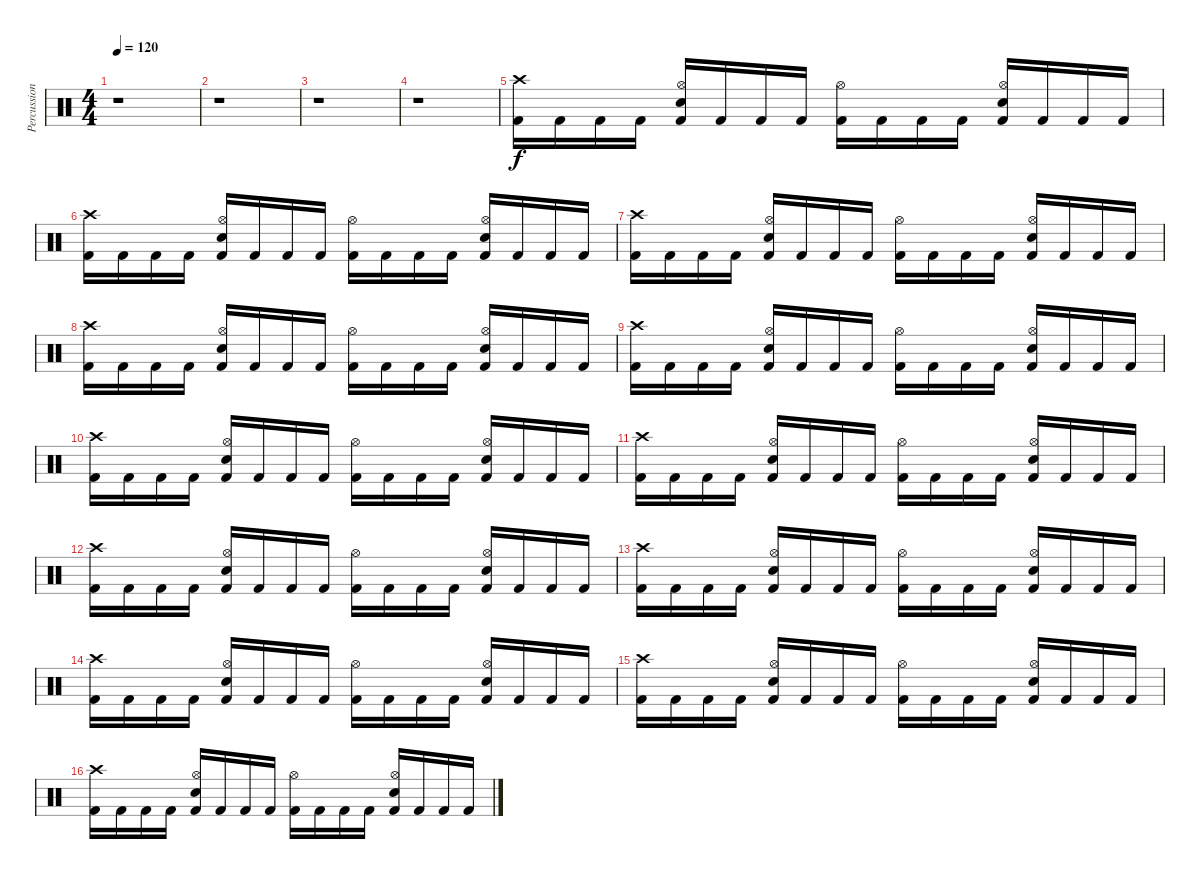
\track ("Percussion" "Percussion") {instrument percussion}
\staff {score}
\articulation defaults
\ts (4 4)
\tempo 120
\clef neutral
\ks c
r.1{dy f} |
r.1 |
r.1 |
r.1 |
("Crash high (hit)" "Kick (hit) 2").16 "Kick (hit) 2".16 "Kick (hit) 2".16 "Kick (hit) 2".16 ("Hi-Hat (open)" "Electric Snare (hit)" "Kick (hit) 2").16 "Kick (hit) 2".16 "Kick (hit) 2".16 "Kick (hit) 2".16 ("Hi-Hat (open)" "Kick (hit) 2").16 "Kick (hit) 2".16 "Kick (hit) 2".16 "Kick (hit) 2".16 ("Hi-Hat (open)" "Electric Snare (hit)" "Kick (hit) 2").16 "Kick (hit) 2".16 "Kick (hit) 2".16 "Kick (hit) 2".16 |
("Crash high (hit)" "Kick (hit) 2").16 "Kick (hit) 2".16 "Kick (hit) 2".16 "Kick (hit) 2".16 ("Hi-Hat (open)" "Electric Snare (hit)" "Kick (hit) 2").16 "Kick (hit) 2".16 "Kick (hit) 2".16 "Kick (hit) 2".16 ("Hi-Hat (open)" "Kick (hit) 2").16 "Kick (hit) 2".16 "Kick (hit) 2".16 "Kick (hit) 2".16 ("Hi-Hat (open)" "Electric Snare (hit)" "Kick (hit) 2").16 "Kick (hit) 2".16 "Kick (hit) 2".16 "Kick (hit) 2".16 |
("Crash high (hit)" "Kick (hit) 2").16 "Kick (hit) 2".16 "Kick (hit) 2".16 "Kick (hit) 2".16 ("Hi-Hat (open)" "Electric Snare (hit)" "Kick (hit) 2").16 "Kick (hit) 2".16 "Kick (hit) 2".16 "Kick (hit) 2".16 ("Hi-Hat (open)" "Kick (hit) 2").16 "Kick (hit) 2".16 "Kick (hit) 2".16 "Kick (hit) 2".16 ("Hi-Hat (open)" "Electric Snare (hit)" "Kick (hit) 2").16 "Kick (hit) 2".16 "Kick (hit) 2".16 "Kick (hit) 2".16 |
("Crash high (hit)" "Kick (hit) 2").16 "Kick (hit) 2".16 "Kick (hit) 2".16 "Kick (hit) 2".16 ("Hi-Hat (open)" "Electric Snare (hit)" "Kick (hit) 2").16 "Kick (hit) 2".16 "Kick (hit) 2".16 "Kick (hit) 2".16 ("Hi-Hat (open)" "Kick (hit) 2").16 "Kick (hit) 2".16 "Kick (hit) 2".16 "Kick (hit) 2".16 ("Hi-Hat (open)" "Electric Snare (hit)" "Kick (hit) 2").16 "Kick (hit) 2".16 "Kick (hit) 2".16 "Kick (hit) 2".16 |
("Crash high (hit)" "Kick (hit) 2").16 "Kick (hit) 2".16 "Kick (hit) 2".16 "Kick (hit) 2".16 ("Hi-Hat (open)" "Electric Snare (hit)" "Kick (hit) 2").16 "Kick (hit) 2".16 "Kick (hit) 2".16 "Kick (hit) 2".16 ("Hi-Hat (open)" "Kick (hit) 2").16 "Kick (hit) 2".16 "Kick (hit) 2".16 "Kick (hit) 2".16 ("Hi-Hat (open)" "Electric Snare (hit)" "Kick (hit) 2").16 "Kick (hit) 2".16 "Kick (hit) 2".16 "Kick (hit) 2".16 |
("Crash high (hit)" "Kick (hit) 2").16 "Kick (hit) 2".16 "Kick (hit) 2".16 "Kick (hit) 2".16 ("Hi-Hat (open)" "Electric Snare (hit)" "Kick (hit) 2").16 "Kick (hit) 2".16 "Kick (hit) 2".16 "Kick (hit) 2".16 ("Hi-Hat (open)" "Kick (hit) 2").16 "Kick (hit) 2".16 "Kick (hit) 2".16 "Kick (hit) 2".16 ("Hi-Hat (open)" "Electric Snare (hit)" "Kick (hit) 2").16 "Kick (hit) 2".16 "Kick (hit) 2".16 "Kick (hit) 2".16 |
("Crash high (hit)" "Kick (hit) 2").16 "Kick (hit) 2".16 "Kick (hit) 2".16 "Kick (hit) 2".16 ("Hi-Hat (open)" "Electric Snare (hit)" "Kick (hit) 2").16 "Kick (hit) 2".16 "Kick (hit) 2".16 "Kick (hit) 2".16 ("Hi-Hat (open)" "Kick (hit) 2").16 "Kick (hit) 2".16 "Kick (hit) 2".16 "Kick (hit) 2".16 ("Hi-Hat (open)" "Electric Snare (hit)" "Kick (hit) 2").16 "Kick (hit) 2".16 "Kick (hit) 2".16 "Kick (hit) 2".16 |
("Crash high (hit)" "Kick (hit) 2").16 "Kick (hit) 2".16 "Kick (hit) 2".16 "Kick (hit) 2".16 ("Hi-Hat (open)" "Electric Snare (hit)" "Kick (hit) 2").16 "Kick (hit) 2".16 "Kick (hit) 2".16 "Kick (hit) 2".16 ("Hi-Hat (open)" "Kick (hit) 2").16 "Kick (hit) 2".16 "Kick (hit) 2".16 "Kick (hit) 2".16 ("Hi-Hat (open)" "Electric Snare (hit)" "Kick (hit) 2").16 "Kick (hit) 2".16 "Kick (hit) 2".16 "Kick (hit) 2".16 |
("Crash high (hit)" "Kick (hit) 2").16 "Kick (hit) 2".16 "Kick (hit) 2".16 "Kick (hit) 2".16 ("Hi-Hat (open)" "Electric Snare (hit)" "Kick (hit) 2").16 "Kick (hit) 2".16 "Kick (hit) 2".16 "Kick (hit) 2".16 ("Hi-Hat (open)" "Kick (hit) 2").16 "Kick (hit) 2".16 "Kick (hit) 2".16 "Kick (hit) 2".16 ("Hi-Hat (open)" "Electric Snare (hit)" "Kick (hit) 2").16 "Kick (hit) 2".16 "Kick (hit) 2".16 "Kick (hit) 2".16 |
("Crash high (hit)" "Kick (hit) 2").16 "Kick (hit) 2".16 "Kick (hit) 2".16 "Kick (hit) 2".16 ("Hi-Hat (open)" "Electric Snare (hit)" "Kick (hit) 2").16 "Kick (hit) 2".16 "Kick (hit) 2".16 "Kick (hit) 2".16 ("Hi-Hat (open)" "Kick (hit) 2").16 "Kick (hit) 2".16 "Kick (hit) 2".16 "Kick (hit) 2".16 ("Hi-Hat (open)" "Electric Snare (hit)" "Kick (hit) 2").16 "Kick (hit) 2".16 "Kick (hit) 2".16 "Kick (hit) 2".16 |
("Crash high (hit)" "Kick (hit) 2").16 "Kick (hit) 2".16 "Kick (hit) 2".16 "Kick (hit) 2".16 ("Hi-Hat (open)" "Electric Snare (hit)" "Kick (hit) 2").16 "Kick (hit) 2".16 "Kick (hit) 2".16 "Kick (hit) 2".16 ("Hi-Hat (open)" "Kick (hit) 2").16 "Kick (hit) 2".16 "Kick (hit) 2".16 "Kick (hit) 2".16 ("Hi-Hat (open)" "Electric Snare (hit)" "Kick (hit) 2").16 "Kick (hit) 2".16 "Kick (hit) 2".16 "Kick (hit) 2".16 |
("Crash high (hit)" "Kick (hit) 2").16 "Kick (hit) 2".16 "Kick (hit) 2".16 "Kick (hit) 2".16 ("Hi-Hat (open)" "Electric Snare (hit)" "Kick (hit) 2").16 "Kick (hit) 2".16 "Kick (hit) 2".16 "Kick (hit) 2".16 ("Hi-Hat (open)" "Kick (hit) 2").16 "Kick (hit) 2".16 "Kick (hit) 2".16 "Kick (hit) 2".16 ("Hi-Hat (open)" "Electric Snare (hit)" "Kick (hit) 2").16 "Kick (hit) 2".16 "Kick (hit) 2".16 "Kick (hit) 2".16
